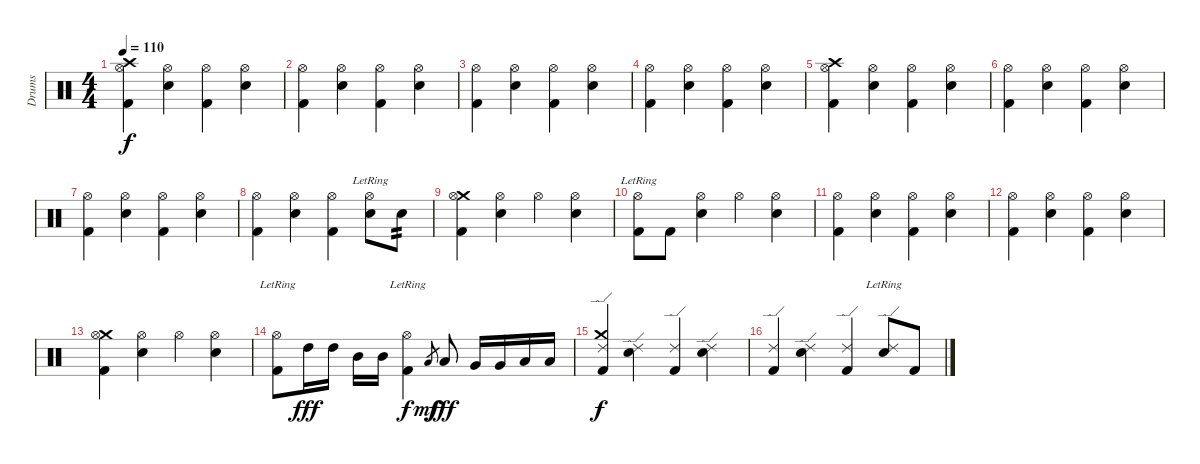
\track ("Drums" "Drums") {instrument percussion}
\staff {score}
\articulation defaults
\ts (4 4)
\tempo 110
\clef neutral
\ks c
("Crash high (hit)" "Hi-Hat (open)" "Kick (hit) 2").4{dy f} ("Hi-Hat (open)" "Electric Snare (hit)").4 ("Hi-Hat (open)" "Kick (hit) 2").4 ("Hi-Hat (open)" "Electric Snare (hit)").4 |
("Hi-Hat (open)" "Kick (hit) 2").4 ("Hi-Hat (open)" "Electric Snare (hit)").4 ("Hi-Hat (open)" "Kick (hit) 2").4 ("Hi-Hat (open)" "Electric Snare (hit)").4 |
("Hi-Hat (open)" "Kick (hit) 2").4 ("Hi-Hat (open)" "Electric Snare (hit)").4 ("Hi-Hat (open)" "Kick (hit) 2").4 ("Hi-Hat (open)" "Electric Snare (hit)").4 |
("Hi-Hat (open)" "Kick (hit) 2").4 ("Hi-Hat (open)" "Electric Snare (hit)").4 ("Hi-Hat (open)" "Kick (hit) 2").4 ("Hi-Hat (open)" "Electric Snare (hit)").4 |
("Crash high (hit)" "Hi-Hat (open)" "Kick (hit) 2").4 ("Hi-Hat (open)" "Electric Snare (hit)").4 ("Hi-Hat (open)" "Kick (hit) 2").4 ("Hi-Hat (open)" "Electric Snare (hit)").4 |
("Hi-Hat (open)" "Kick (hit) 2").4 ("Hi-Hat (open)" "Electric Snare (hit)").4 ("Hi-Hat (open)" "Kick (hit) 2").4 ("Hi-Hat (open)" "Electric Snare (hit)").4 |
("Hi-Hat (open)" "Kick (hit) 2").4 ("Hi-Hat (open)" "Electric Snare (hit)").4 ("Hi-Hat (open)" "Kick (hit) 2").4 ("Hi-Hat (open)" "Electric Snare (hit)").4 |
("Hi-Hat (open)" "Kick (hit) 2").4 ("Hi-Hat (open)" "Electric Snare (hit)").4 ("Hi-Hat (open)" "Kick (hit) 2").4 ("Hi-Hat (open)"{lr} "Electric Snare (hit)").8 "Electric Snare (hit)".8{tp 2} |
("Crash medium (hit)" "Hi-Hat (open)" "Kick (hit) 2").4 ("Hi-Hat (open)" "Electric Snare (hit)").4 "Hi-Hat (open)".4 ("Hi-Hat (open)" "Electric Snare (hit)").4 |
("Hi-Hat (open)"{lr} "Kick (hit) 2").8 "Kick (hit) 2".8 ("Hi-Hat (open)" "Electric Snare (hit)").4 "Hi-Hat (open)".4 ("Hi-Hat (open)" "Electric Snare (hit)").4 |
("Hi-Hat (open)" "Kick (hit) 2").4 ("Hi-Hat (open)" "Electric Snare (hit)").4 ("Hi-Hat (open)" "Kick (hit) 2").4 ("Hi-Hat (open)" "Electric Snare (hit)").4 |
("Hi-Hat (open)" "Kick (hit) 2").4 ("Hi-Hat (open)" "Electric Snare (hit)").4 ("Hi-Hat (open)" "Kick (hit) 2").4 ("Hi-Hat (open)" "Electric Snare (hit)").4 |
("Crash medium (hit)" "Hi-Hat (open)" "Kick (hit) 2").4 ("Hi-Hat (open)" "Electric Snare (hit)").4 "Hi-Hat (open)".4 ("Hi-Hat (open)" "Electric Snare (hit)").4 |
("Hi-Hat (open)"{lr} "Kick (hit) 2").8 "High Tom (hit)".16{dy fff} "High Tom (hit)".16 "Mid Tom (hit)".16 "Mid Tom (hit)".16 ("Hi-Hat (open)"{lr} "Kick (hit) 2").4{dy f} "Low Tom (hit)".8{gr dy mf} "Low Tom (hit)".8{dy fff} "Very Low Tom (hit)".16 "Very Low Tom (hit)".16 "Low Floor Tom (hit)".16 "Low Floor Tom (hit)".16 |
("Crash medium (hit)" "Ride (edge) 2" "Kick (hit) 2").4{dy f} ("Ride (edge) 2" "Electric Snare (hit)").4 ("Ride (edge) 2" "Kick (hit) 2").4 ("Ride (edge) 2" "Electric Snare (hit)").4 |
("Ride (edge) 2" "Kick (hit) 2").4 ("Ride (edge) 2" "Electric Snare (hit)").4 ("Ride (edge) 2" "Kick (hit) 2").4 ("Ride (edge) 2"{lr} "Electric Snare (hit)").8 "Kick (hit) 2".8
